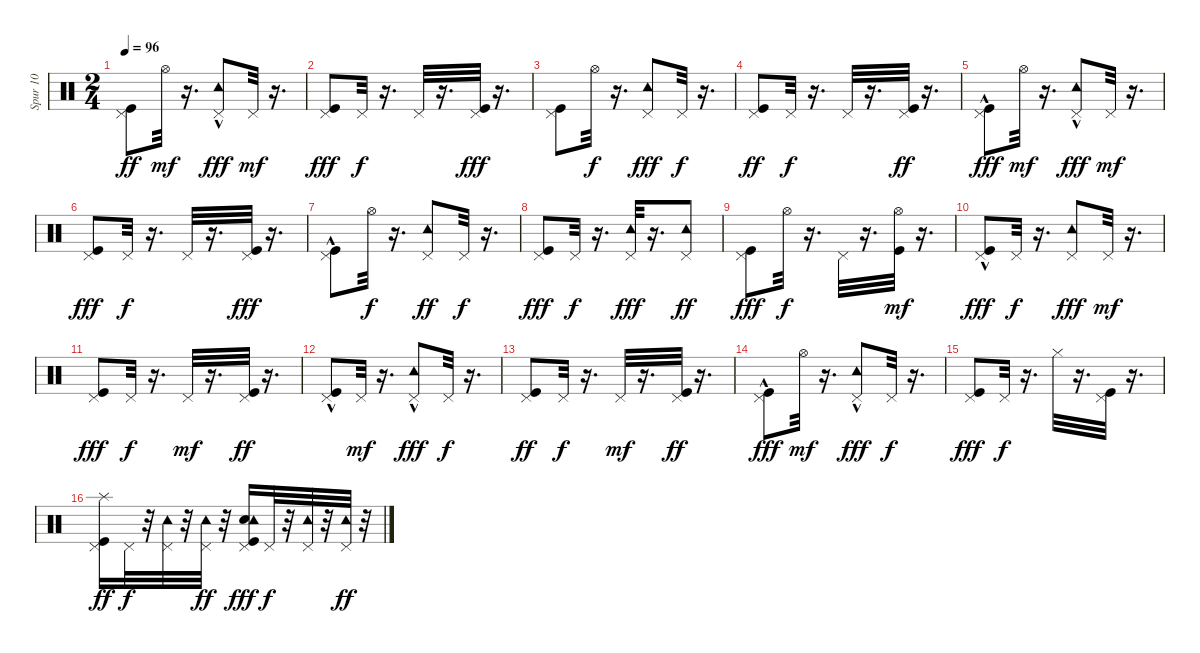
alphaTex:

\track ("Spur 10" "Spur 10") {instrument percussion}
\staff {score}
\articulation defaults
\ts (2 4)
\tempo 96
\clef neutral
\ks c
("Kick (hit)" "Pedal Hi-Hat (hit)").8{dy ff} "Hi-Hat (open)".32{dy mf} r.16{d} ("Tambourine (hit)"{hac} "Pedal Hi-Hat (hit)").8{dy fff} "Pedal Hi-Hat (hit)".32{dy mf} r.16{d} |
("Kick (hit)" "Pedal Hi-Hat (hit)").8{dy fff} "Pedal Hi-Hat (hit)".32{dy f} r.16{d} "Pedal Hi-Hat (hit)".32 r.16{d} ("Kick (hit)" "Pedal Hi-Hat (hit)").32{dy fff} r.16{d} |
("Kick (hit)" "Pedal Hi-Hat (hit)").8 "Hi-Hat (open)".32{dy f} r.16{d} ("Tambourine (hit)" "Pedal Hi-Hat (hit)").8{dy fff} "Pedal Hi-Hat (hit)".32{dy f} r.16{d} |
("Kick (hit)" "Pedal Hi-Hat (hit)").8{dy ff} "Pedal Hi-Hat (hit)".32{dy f} r.16{d} "Pedal Hi-Hat (hit)".32 r.16{d} ("Kick (hit)" "Pedal Hi-Hat (hit)").32{dy ff} r.16{d} |
("Kick (hit)"{hac} "Pedal Hi-Hat (hit)").8{dy fff} "Hi-Hat (open)".32{dy mf} r.16{d} ("Tambourine (hit)"{hac} "Pedal Hi-Hat (hit)").8{dy fff} "Pedal Hi-Hat (hit)".32{dy mf} r.16{d} |
("Kick (hit)" "Pedal Hi-Hat (hit)").8{dy fff} "Pedal Hi-Hat (hit)".32{dy f} r.16{d} "Pedal Hi-Hat (hit)".32 r.16{d} ("Kick (hit)" "Pedal Hi-Hat (hit)").32{dy fff} r.16{d} |
("Kick (hit)"{hac} "Pedal Hi-Hat (hit)").8 "Hi-Hat (open)".32{dy f} r.16{d} ("Tambourine (hit)" "Pedal Hi-Hat (hit)").8{dy ff} "Pedal Hi-Hat (hit)".32{dy f} r.16{d} |
("Kick (hit)" "Pedal Hi-Hat (hit)").8{dy fff} "Pedal Hi-Hat (hit)".32{dy f} r.16{d} ("Tambourine (hit)" "Pedal Hi-Hat (hit)").32{dy fff} r.16{d} ("Tambourine (hit)" "Pedal Hi-Hat (hit)").8{dy ff} |
("Kick (hit)" "Pedal Hi-Hat (hit)").8{dy fff} "Hi-Hat (open)".32{dy f} r.16{d} "Pedal Hi-Hat (hit)".32 r.16{d} ("Kick (hit)" "Hi-Hat (open)").32{dy mf} r.16{d} |
("Kick (hit)"{hac} "Pedal Hi-Hat (hit)").8{dy fff} "Pedal Hi-Hat (hit)".32{dy f} r.16{d} ("Tambourine (hit)" "Pedal Hi-Hat (hit)").8{dy fff} "Pedal Hi-Hat (hit)".32{dy mf} r.16{d} |
("Kick (hit)" "Pedal Hi-Hat (hit)").8{dy fff} "Pedal Hi-Hat (hit)".32{dy f} r.16{d} "Pedal Hi-Hat (hit)".32{dy mf} r.16{d} ("Kick (hit)" "Pedal Hi-Hat (hit)").32{dy ff} r.16{d} |
("Kick (hit)"{hac} "Pedal Hi-Hat (hit)").8 "Pedal Hi-Hat (hit)".32{dy mf} r.16{d} ("Tambourine (hit)"{hac} "Pedal Hi-Hat (hit)").8{dy fff} "Pedal Hi-Hat (hit)".32{dy f} r.16{d} |
("Kick (hit)" "Pedal Hi-Hat (hit)").8{dy ff} "Pedal Hi-Hat (hit)".32{dy f} r.16{d} "Pedal Hi-Hat (hit)".32{dy mf} r.16{d} ("Kick (hit)" "Pedal Hi-Hat (hit)").32{dy ff} r.16{d} |
("Kick (hit)"{hac} "Pedal Hi-Hat (hit)").8{dy fff} "Hi-Hat (open)".32{dy mf} r.16{d} ("Tambourine (hit)"{hac} "Pedal Hi-Hat (hit)").8{dy fff} "Pedal Hi-Hat (hit)".32{dy f} r.16{d} |
("Kick (hit)" "Pedal Hi-Hat (hit)").8{dy fff} "Pedal Hi-Hat (hit)".32{dy f} r.16{d} "Hi-Hat (closed)".32 r.16{d} ("Kick (hit)" "Pedal Hi-Hat (hit)").32 r.16{d} |
("Kick (hit)" "Pedal Hi-Hat (hit)" "Splash (hit)").16{dy ff} "Pedal Hi-Hat (hit)".32{dy f} r.32 ("Tambourine (hit)" "Pedal Hi-Hat (hit)").32 r.32 ("Tambourine (hit)" "Pedal Hi-Hat (hit)").32{dy ff} r.32 ("Snare (hit) 2" "Kick (hit)" "Tambourine (hit)" "Pedal Hi-Hat (hit)").16{dy fff} "Pedal Hi-Hat (hit)".32{dy f} r.32 ("Tambourine (hit)" "Pedal Hi-Hat (hit)").32 r.32 ("Tambourine (hit)" "Pedal Hi-Hat (hit)").32{dy ff} r.32
